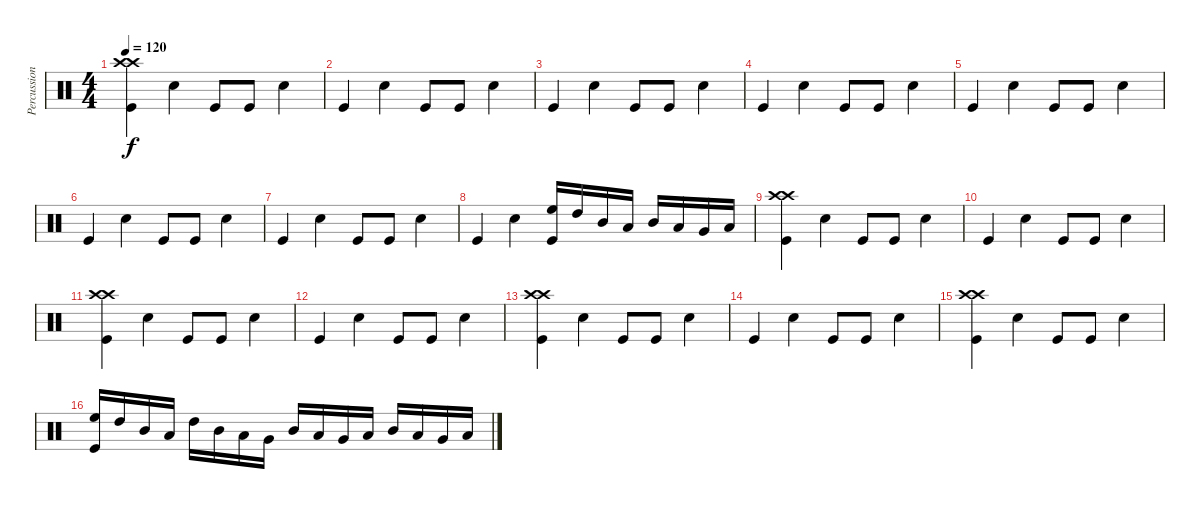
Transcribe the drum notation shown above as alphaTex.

\track ("Percussion" "Percussion") {instrument percussion}
\staff {score}
\articulation defaults
\ts (4 4)
\tempo 120
\clef neutral
\ks c
("Crash high (hit)" "Crash high (hit)" "Kick (hit)").4{dy f} "Snare (hit) 2".4 "Kick (hit)".8 "Kick (hit)".8 "Snare (hit) 2".4 |
"Kick (hit)".4 "Snare (hit) 2".4 "Kick (hit)".8 "Kick (hit)".8 "Snare (hit) 2".4 |
"Kick (hit)".4 "Snare (hit) 2".4 "Kick (hit)".8 "Kick (hit)".8 "Snare (hit) 2".4 |
"Kick (hit)".4 "Snare (hit) 2".4 "Kick (hit)".8 "Kick (hit)".8 "Snare (hit) 2".4 |
"Kick (hit)".4 "Snare (hit) 2".4 "Kick (hit)".8 "Kick (hit)".8 "Snare (hit) 2".4 |
"Kick (hit)".4 "Snare (hit) 2".4 "Kick (hit)".8 "Kick (hit)".8 "Snare (hit) 2".4 |
"Kick (hit)".4 "Snare (hit) 2".4 "Kick (hit)".8 "Kick (hit)".8 "Snare (hit) 2".4 |
"Kick (hit)".4 "Snare (hit) 2".4 ("High Floor Tom (hit)" "Kick (hit)").16 "High Tom (hit)".16 "Mid Tom (hit)".16 "Low Tom (hit)".16 "Mid Tom (hit)".16 "Low Tom (hit)".16 "Very Low Tom (hit)".16 "Low Floor Tom (hit)".16 |
("Crash high (hit)" "Crash high (hit)" "Kick (hit)").4 "Snare (hit) 2".4 "Kick (hit)".8 "Kick (hit)".8 "Snare (hit) 2".4 |
"Kick (hit)".4 "Snare (hit) 2".4 "Kick (hit)".8 "Kick (hit)".8 "Snare (hit) 2".4 |
("Crash high (hit)" "Crash high (hit)" "Kick (hit)").4 "Snare (hit) 2".4 "Kick (hit)".8 "Kick (hit)".8 "Snare (hit) 2".4 |
"Kick (hit)".4 "Snare (hit) 2".4 "Kick (hit)".8 "Kick (hit)".8 "Snare (hit) 2".4 |
("Crash high (hit)" "Crash high (hit)" "Kick (hit)").4 "Snare (hit) 2".4 "Kick (hit)".8 "Kick (hit)".8 "Snare (hit) 2".4 |
"Kick (hit)".4 "Snare (hit) 2".4 "Kick (hit)".8 "Kick (hit)".8 "Snare (hit) 2".4 |
("Crash high (hit)" "Crash high (hit)" "Kick (hit)").4 "Snare (hit) 2".4 "Kick (hit)".8 "Kick (hit)".8 "Snare (hit) 2".4 |
("High Floor Tom (hit)" "Kick (hit)").16 "High Tom (hit)".16 "Mid Tom (hit)".16 "Low Tom (hit)".16 "High Tom (hit)".16 "Mid Tom (hit)".16 "Low Tom (hit)".16 "Very Low Tom (hit)".16 "Mid Tom (hit)".16 "Low Tom (hit)".16 "Very Low Tom (hit)".16 "Low Floor Tom (hit)".16 "Mid Tom (hit)".16 "Low Tom (hit)".16 "Very Low Tom (hit)".16 "Low Floor Tom (hit)".16
